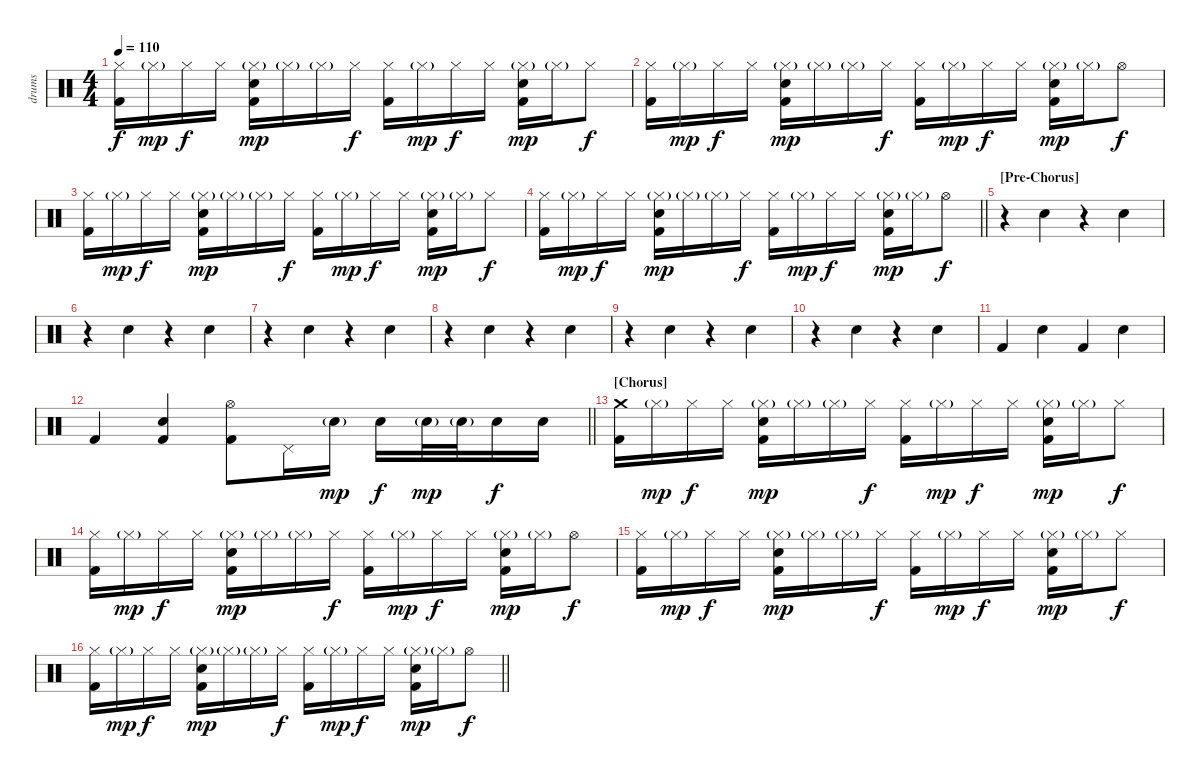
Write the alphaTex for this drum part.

\track ("drums" "drums") {instrument percussion}
\staff {score}
\articulation defaults
\ts (4 4)
\tempo 110
\clef neutral
\ks c
("Hi-Hat (closed)" "Kick (hit) 2").16{dy f} "Hi-Hat (closed)"{g}.16{dy mp} "Hi-Hat (closed)".16{dy f} "Hi-Hat (closed)".16 ("Hi-Hat (closed)"{g} "Electric Snare (hit)" "Kick (hit) 2").16{dy mp} "Hi-Hat (closed)"{g}.16 "Hi-Hat (closed)"{g}.16 "Hi-Hat (closed)".16{dy f} ("Hi-Hat (closed)" "Kick (hit) 2").16 "Hi-Hat (closed)"{g}.16{dy mp} "Hi-Hat (closed)".16{dy f} "Hi-Hat (closed)".16 ("Hi-Hat (closed)"{g} "Electric Snare (hit)" "Kick (hit) 2").16{dy mp} "Hi-Hat (closed)"{g}.16 "Hi-Hat (closed)".8{dy f} |
("Hi-Hat (closed)" "Kick (hit) 2").16 "Hi-Hat (closed)"{g}.16{dy mp} "Hi-Hat (closed)".16{dy f} "Hi-Hat (closed)".16 ("Hi-Hat (closed)"{g} "Electric Snare (hit)" "Kick (hit) 2").16{dy mp} "Hi-Hat (closed)"{g}.16 "Hi-Hat (closed)"{g}.16 "Hi-Hat (closed)".16{dy f} ("Hi-Hat (closed)" "Kick (hit) 2").16 "Hi-Hat (closed)"{g}.16{dy mp} "Hi-Hat (closed)".16{dy f} "Hi-Hat (closed)".16 ("Hi-Hat (closed)"{g} "Electric Snare (hit)" "Kick (hit) 2").16{dy mp} "Hi-Hat (closed)"{g}.16 "Hi-Hat (open)".8{dy f} |
("Hi-Hat (closed)" "Kick (hit) 2").16 "Hi-Hat (closed)"{g}.16{dy mp} "Hi-Hat (closed)".16{dy f} "Hi-Hat (closed)".16 ("Hi-Hat (closed)"{g} "Electric Snare (hit)" "Kick (hit) 2").16{dy mp} "Hi-Hat (closed)"{g}.16 "Hi-Hat (closed)"{g}.16 "Hi-Hat (closed)".16{dy f} ("Hi-Hat (closed)" "Kick (hit) 2").16 "Hi-Hat (closed)"{g}.16{dy mp} "Hi-Hat (closed)".16{dy f} "Hi-Hat (closed)".16 ("Hi-Hat (closed)"{g} "Electric Snare (hit)" "Kick (hit) 2").16{dy mp} "Hi-Hat (closed)"{g}.16 "Hi-Hat (closed)".8{dy f} |
\barLineRight lightlight
("Hi-Hat (closed)" "Kick (hit) 2").16 "Hi-Hat (closed)"{g}.16{dy mp} "Hi-Hat (closed)".16{dy f} "Hi-Hat (closed)".16 ("Hi-Hat (closed)"{g} "Electric Snare (hit)" "Kick (hit) 2").16{dy mp} "Hi-Hat (closed)"{g}.16 "Hi-Hat (closed)"{g}.16 "Hi-Hat (closed)".16{dy f} ("Hi-Hat (closed)" "Kick (hit) 2").16 "Hi-Hat (closed)"{g}.16{dy mp} "Hi-Hat (closed)".16{dy f} "Hi-Hat (closed)".16 ("Hi-Hat (closed)"{g} "Electric Snare (hit)" "Kick (hit) 2").16{dy mp} "Hi-Hat (closed)"{g}.16 "Hi-Hat (open)".8{dy f} |
\section ("" "[Pre-Chorus]")
r.4 "Hand Clap (hit)".4 r.4 "Hand Clap (hit)".4 |
r.4 "Hand Clap (hit)".4 r.4 "Hand Clap (hit)".4 |
r.4 "Hand Clap (hit)".4 r.4 "Hand Clap (hit)".4 |
r.4 "Hand Clap (hit)".4 r.4 "Hand Clap (hit)".4 |
r.4 "Hand Clap (hit)".4 r.4 "Hand Clap (hit)".4 |
r.4 "Hand Clap (hit)".4 r.4 "Hand Clap (hit)".4 |
"Kick (hit) 2".4 "Hand Clap (hit)".4 "Kick (hit) 2".4 "Hand Clap (hit)".4 |
\barLineRight lightlight "Kick (hit) 2".4
("Hand Clap (hit)" "Kick (hit) 2").4 ("Hi-Hat (open)" "Kick (hit) 2").8 "Pedal Hi-Hat (hit)".16 "Electric Snare (hit)"{g}.16{dy mp} "Electric Snare (hit)".16{dy f} "Electric Snare (hit)"{g}.32{dy mp} "Electric Snare (hit)"{g}.32 "Electric Snare (hit)".16{dy f} "Electric Snare (hit)".16 |
\section ("" "[Chorus]")
("Crash medium (hit)" "Kick (hit) 2").16 "Hi-Hat (closed)"{g}.16{dy mp} "Hi-Hat (closed)".16{dy f} "Hi-Hat (closed)".16 ("Hi-Hat (closed)"{g} "Electric Snare (hit)" "Kick (hit) 2").16{dy mp} "Hi-Hat (closed)"{g}.16 "Hi-Hat (closed)"{g}.16 "Hi-Hat (closed)".16{dy f} ("Hi-Hat (closed)" "Kick (hit) 2").16 "Hi-Hat (closed)"{g}.16{dy mp} "Hi-Hat (closed)".16{dy f} "Hi-Hat (closed)".16 ("Hi-Hat (closed)"{g} "Electric Snare (hit)" "Kick (hit) 2").16{dy mp} "Hi-Hat (closed)"{g}.16 "Hi-Hat (closed)".8{dy f} |
("Hi-Hat (closed)" "Kick (hit) 2").16 "Hi-Hat (closed)"{g}.16{dy mp} "Hi-Hat (closed)".16{dy f} "Hi-Hat (closed)".16 ("Hi-Hat (closed)"{g} "Electric Snare (hit)" "Kick (hit) 2").16{dy mp} "Hi-Hat (closed)"{g}.16 "Hi-Hat (closed)"{g}.16 "Hi-Hat (closed)".16{dy f} ("Hi-Hat (closed)" "Kick (hit) 2").16 "Hi-Hat (closed)"{g}.16{dy mp} "Hi-Hat (closed)".16{dy f} "Hi-Hat (closed)".16 ("Hi-Hat (closed)"{g} "Electric Snare (hit)" "Kick (hit) 2").16{dy mp} "Hi-Hat (closed)"{g}.16 "Hi-Hat (open)".8{dy f} |
("Hi-Hat (closed)" "Kick (hit) 2").16 "Hi-Hat (closed)"{g}.16{dy mp} "Hi-Hat (closed)".16{dy f} "Hi-Hat (closed)".16 ("Hi-Hat (closed)"{g} "Electric Snare (hit)" "Kick (hit) 2").16{dy mp} "Hi-Hat (closed)"{g}.16 "Hi-Hat (closed)"{g}.16 "Hi-Hat (closed)".16{dy f} ("Hi-Hat (closed)" "Kick (hit) 2").16 "Hi-Hat (closed)"{g}.16{dy mp} "Hi-Hat (closed)".16{dy f} "Hi-Hat (closed)".16 ("Hi-Hat (closed)"{g} "Electric Snare (hit)" "Kick (hit) 2").16{dy mp} "Hi-Hat (closed)"{g}.16 "Hi-Hat (closed)".8{dy f} |
\barLineRight lightlight
("Hi-Hat (closed)" "Kick (hit) 2").16 "Hi-Hat (closed)"{g}.16{dy mp} "Hi-Hat (closed)".16{dy f} "Hi-Hat (closed)".16 ("Hi-Hat (closed)"{g} "Electric Snare (hit)" "Kick (hit) 2").16{dy mp} "Hi-Hat (closed)"{g}.16 "Hi-Hat (closed)"{g}.16 "Hi-Hat (closed)".16{dy f} ("Hi-Hat (closed)" "Kick (hit) 2").16 "Hi-Hat (closed)"{g}.16{dy mp} "Hi-Hat (closed)".16{dy f} "Hi-Hat (closed)".16 ("Hi-Hat (closed)"{g} "Electric Snare (hit)" "Kick (hit) 2").16{dy mp} "Hi-Hat (closed)"{g}.16 "Hi-Hat (open)".8{dy f}
